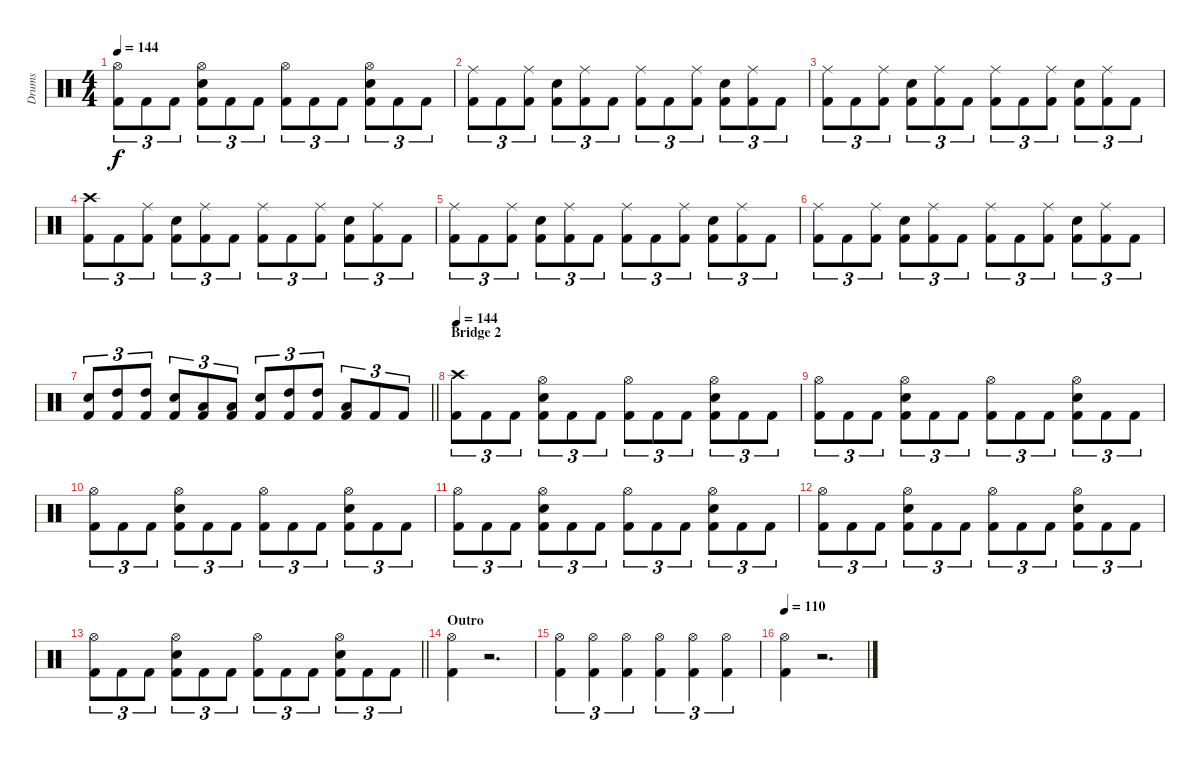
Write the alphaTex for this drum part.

\track ("Drums" "Drums") {instrument percussion}
\staff {score}
\articulation defaults
\ts (4 4)
\tempo 144
\clef neutral
\ks c
("Hi-Hat (open)" "Kick (hit) 2").8{tu (3 2) dy f} "Kick (hit) 2".8{tu (3 2)} "Kick (hit) 2".8{tu (3 2)} ("Hi-Hat (open)" "Snare (hit) 2" "Kick (hit) 2").8{tu (3 2)} "Kick (hit) 2".8{tu (3 2)} "Kick (hit) 2".8{tu (3 2)} ("Hi-Hat (open)" "Kick (hit) 2").8{tu (3 2)} "Kick (hit) 2".8{tu (3 2)} "Kick (hit) 2".8{tu (3 2)} ("Hi-Hat (open)" "Snare (hit) 2" "Kick (hit) 2").8{tu (3 2)} "Kick (hit) 2".8{tu (3 2)} "Kick (hit) 2".8{tu (3 2)} |
("Ride (middle)" "Kick (hit) 2").8{tu (3 2)} "Kick (hit) 2".8{tu (3 2)} ("Ride (middle)" "Kick (hit) 2").8{tu (3 2)} ("Snare (hit) 2" "Kick (hit) 2").8{tu (3 2)} ("Ride (middle)" "Kick (hit) 2").8{tu (3 2)} "Kick (hit) 2".8{tu (3 2)} ("Ride (middle)" "Kick (hit) 2").8{tu (3 2)} "Kick (hit) 2".8{tu (3 2)} ("Ride (middle)" "Kick (hit) 2").8{tu (3 2)} ("Snare (hit) 2" "Kick (hit) 2").8{tu (3 2)} ("Ride (middle)" "Kick (hit) 2").8{tu (3 2)} "Kick (hit) 2".8{tu (3 2)} |
("Ride (middle)" "Kick (hit) 2").8{tu (3 2)} "Kick (hit) 2".8{tu (3 2)} ("Ride (middle)" "Kick (hit) 2").8{tu (3 2)} ("Snare (hit) 2" "Kick (hit) 2").8{tu (3 2)} ("Ride (middle)" "Kick (hit) 2").8{tu (3 2)} "Kick (hit) 2".8{tu (3 2)} ("Ride (middle)" "Kick (hit) 2").8{tu (3 2)} "Kick (hit) 2".8{tu (3 2)} ("Ride (middle)" "Kick (hit) 2").8{tu (3 2)} ("Snare (hit) 2" "Kick (hit) 2").8{tu (3 2)} ("Ride (middle)" "Kick (hit) 2").8{tu (3 2)} "Kick (hit) 2".8{tu (3 2)} |
("Crash high (hit)" "Kick (hit) 2").8{tu (3 2)} "Kick (hit) 2".8{tu (3 2)} ("Ride (middle)" "Kick (hit) 2").8{tu (3 2)} ("Snare (hit) 2" "Kick (hit) 2").8{tu (3 2)} ("Ride (middle)" "Kick (hit) 2").8{tu (3 2)} "Kick (hit) 2".8{tu (3 2)} ("Ride (middle)" "Kick (hit) 2").8{tu (3 2)} "Kick (hit) 2".8{tu (3 2)} ("Ride (middle)" "Kick (hit) 2").8{tu (3 2)} ("Snare (hit) 2" "Kick (hit) 2").8{tu (3 2)} ("Ride (middle)" "Kick (hit) 2").8{tu (3 2)} "Kick (hit) 2".8{tu (3 2)} |
("Ride (middle)" "Kick (hit) 2").8{tu (3 2)} "Kick (hit) 2".8{tu (3 2)} ("Ride (middle)" "Kick (hit) 2").8{tu (3 2)} ("Snare (hit) 2" "Kick (hit) 2").8{tu (3 2)} ("Ride (middle)" "Kick (hit) 2").8{tu (3 2)} "Kick (hit) 2".8{tu (3 2)} ("Ride (middle)" "Kick (hit) 2").8{tu (3 2)} "Kick (hit) 2".8{tu (3 2)} ("Ride (middle)" "Kick (hit) 2").8{tu (3 2)} ("Snare (hit) 2" "Kick (hit) 2").8{tu (3 2)} ("Ride (middle)" "Kick (hit) 2").8{tu (3 2)} "Kick (hit) 2".8{tu (3 2)} |
("Ride (middle)" "Kick (hit) 2").8{tu (3 2)} "Kick (hit) 2".8{tu (3 2)} ("Ride (middle)" "Kick (hit) 2").8{tu (3 2)} ("Snare (hit) 2" "Kick (hit) 2").8{tu (3 2)} ("Ride (middle)" "Kick (hit) 2").8{tu (3 2)} "Kick (hit) 2".8{tu (3 2)} ("Ride (middle)" "Kick (hit) 2").8{tu (3 2)} "Kick (hit) 2".8{tu (3 2)} ("Ride (middle)" "Kick (hit) 2").8{tu (3 2)} ("Snare (hit) 2" "Kick (hit) 2").8{tu (3 2)} ("Ride (middle)" "Kick (hit) 2").8{tu (3 2)} "Kick (hit) 2".8{tu (3 2)} |
\barLineRight lightlight
("Snare (hit) 2" "Kick (hit) 2").8{tu (3 2)} ("High Tom (hit)" "Kick (hit) 2").8{tu (3 2)} ("High Tom (hit)" "Kick (hit) 2").8{tu (3 2)} ("Snare (hit) 2" "Kick (hit) 2").8{tu (3 2)} ("Low Tom (hit)" "Kick (hit) 2").8{tu (3 2)} ("Low Tom (hit)" "Kick (hit) 2").8{tu (3 2)} ("Snare (hit) 2" "Kick (hit) 2").8{tu (3 2)} ("High Tom (hit)" "Kick (hit) 2").8{tu (3 2)} ("High Tom (hit)" "Kick (hit) 2").8{tu (3 2)} ("Low Tom (hit)" "Kick (hit) 2").8{tu (3 2)} "Kick (hit) 2".8{tu (3 2)} "Kick (hit) 2".8{tu (3 2)} |
\section ("" "Bridge 2")
\tempo 144
("Crash high (hit)" "Kick (hit) 2").8{tu (3 2)} "Kick (hit) 2".8{tu (3 2)} "Kick (hit) 2".8{tu (3 2)} ("Hi-Hat (open)" "Snare (hit) 2" "Kick (hit) 2").8{tu (3 2)} "Kick (hit) 2".8{tu (3 2)} "Kick (hit) 2".8{tu (3 2)} ("Hi-Hat (open)" "Kick (hit) 2").8{tu (3 2)} "Kick (hit) 2".8{tu (3 2)} "Kick (hit) 2".8{tu (3 2)} ("Hi-Hat (open)" "Snare (hit) 2" "Kick (hit) 2").8{tu (3 2)} "Kick (hit) 2".8{tu (3 2)} "Kick (hit) 2".8{tu (3 2)} |
("Hi-Hat (open)" "Kick (hit) 2").8{tu (3 2)} "Kick (hit) 2".8{tu (3 2)} "Kick (hit) 2".8{tu (3 2)} ("Hi-Hat (open)" "Snare (hit) 2" "Kick (hit) 2").8{tu (3 2)} "Kick (hit) 2".8{tu (3 2)} "Kick (hit) 2".8{tu (3 2)} ("Hi-Hat (open)" "Kick (hit) 2").8{tu (3 2)} "Kick (hit) 2".8{tu (3 2)} "Kick (hit) 2".8{tu (3 2)} ("Hi-Hat (open)" "Snare (hit) 2" "Kick (hit) 2").8{tu (3 2)} "Kick (hit) 2".8{tu (3 2)} "Kick (hit) 2".8{tu (3 2)} |
("Hi-Hat (open)" "Kick (hit) 2").8{tu (3 2)} "Kick (hit) 2".8{tu (3 2)} "Kick (hit) 2".8{tu (3 2)} ("Hi-Hat (open)" "Snare (hit) 2" "Kick (hit) 2").8{tu (3 2)} "Kick (hit) 2".8{tu (3 2)} "Kick (hit) 2".8{tu (3 2)} ("Hi-Hat (open)" "Kick (hit) 2").8{tu (3 2)} "Kick (hit) 2".8{tu (3 2)} "Kick (hit) 2".8{tu (3 2)} ("Hi-Hat (open)" "Snare (hit) 2" "Kick (hit) 2").8{tu (3 2)} "Kick (hit) 2".8{tu (3 2)} "Kick (hit) 2".8{tu (3 2)} |
("Hi-Hat (open)" "Kick (hit) 2").8{tu (3 2)} "Kick (hit) 2".8{tu (3 2)} "Kick (hit) 2".8{tu (3 2)} ("Hi-Hat (open)" "Snare (hit) 2" "Kick (hit) 2").8{tu (3 2)} "Kick (hit) 2".8{tu (3 2)} "Kick (hit) 2".8{tu (3 2)} ("Hi-Hat (open)" "Kick (hit) 2").8{tu (3 2)} "Kick (hit) 2".8{tu (3 2)} "Kick (hit) 2".8{tu (3 2)} ("Hi-Hat (open)" "Snare (hit) 2" "Kick (hit) 2").8{tu (3 2)} "Kick (hit) 2".8{tu (3 2)} "Kick (hit) 2".8{tu (3 2)} |
("Hi-Hat (open)" "Kick (hit) 2").8{tu (3 2)} "Kick (hit) 2".8{tu (3 2)} "Kick (hit) 2".8{tu (3 2)} ("Hi-Hat (open)" "Snare (hit) 2" "Kick (hit) 2").8{tu (3 2)} "Kick (hit) 2".8{tu (3 2)} "Kick (hit) 2".8{tu (3 2)} ("Hi-Hat (open)" "Kick (hit) 2").8{tu (3 2)} "Kick (hit) 2".8{tu (3 2)} "Kick (hit) 2".8{tu (3 2)} ("Hi-Hat (open)" "Snare (hit) 2" "Kick (hit) 2").8{tu (3 2)} "Kick (hit) 2".8{tu (3 2)} "Kick (hit) 2".8{tu (3 2)} |
\barLineRight lightlight
("Hi-Hat (open)" "Kick (hit) 2").8{tu (3 2)} "Kick (hit) 2".8{tu (3 2)} "Kick (hit) 2".8{tu (3 2)} ("Hi-Hat (open)" "Snare (hit) 2" "Kick (hit) 2").8{tu (3 2)} "Kick (hit) 2".8{tu (3 2)} "Kick (hit) 2".8{tu (3 2)} ("Hi-Hat (open)" "Kick (hit) 2").8{tu (3 2)} "Kick (hit) 2".8{tu (3 2)} "Kick (hit) 2".8{tu (3 2)} ("Hi-Hat (open)" "Snare (hit) 2" "Kick (hit) 2").8{tu (3 2)} "Kick (hit) 2".8{tu (3 2)} "Kick (hit) 2".8{tu (3 2)} |
\section ("" "Outro")
("Hi-Hat (open)" "Kick (hit) 2").4 r.2{d} |
("Hi-Hat (open)" "Kick (hit) 2").4{tu (3 2)} ("Hi-Hat (open)" "Kick (hit) 2").4{tu (3 2)} ("Hi-Hat (open)" "Kick (hit) 2").4{tu (3 2)} ("Hi-Hat (open)" "Kick (hit) 2").4{tu (3 2)} ("Hi-Hat (open)" "Kick (hit) 2").4{tu (3 2)} ("Hi-Hat (open)" "Kick (hit) 2").4{tu (3 2)} |
\tempo 110
("Hi-Hat (open)" "Kick (hit) 2").4 r.2{d}
